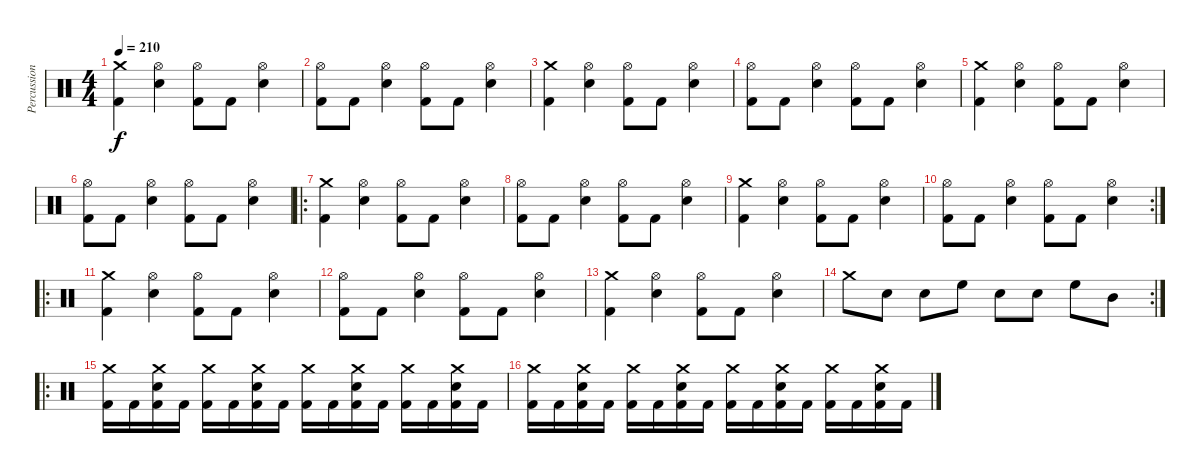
\track ("Percussion" "Percussion") {instrument percussion}
\staff {score}
\articulation defaults
\ts (4 4)
\tempo 210
\clef neutral
\ks c
("Crash medium (hit)" "Kick (hit) 2").4{dy f} ("Hi-Hat (open)" "Electric Snare (hit)").4 ("Hi-Hat (open)" "Kick (hit) 2").8 "Kick (hit) 2".8 ("Hi-Hat (open)" "Electric Snare (hit)").4 |
("Hi-Hat (open)" "Kick (hit) 2").8 "Kick (hit) 2".8 ("Hi-Hat (open)" "Electric Snare (hit)").4 ("Hi-Hat (open)" "Kick (hit) 2").8 "Kick (hit) 2".8 ("Hi-Hat (open)" "Electric Snare (hit)").4 |
("Crash medium (hit)" "Kick (hit) 2").4 ("Hi-Hat (open)" "Electric Snare (hit)").4 ("Hi-Hat (open)" "Kick (hit) 2").8 "Kick (hit) 2".8 ("Hi-Hat (open)" "Electric Snare (hit)").4 |
("Hi-Hat (open)" "Kick (hit) 2").8 "Kick (hit) 2".8 ("Hi-Hat (open)" "Electric Snare (hit)").4 ("Hi-Hat (open)" "Kick (hit) 2").8 "Kick (hit) 2".8 ("Hi-Hat (open)" "Electric Snare (hit)").4 |
("Crash medium (hit)" "Kick (hit) 2").4 ("Hi-Hat (open)" "Electric Snare (hit)").4 ("Hi-Hat (open)" "Kick (hit) 2").8 "Kick (hit) 2".8 ("Hi-Hat (open)" "Electric Snare (hit)").4 |
("Hi-Hat (open)" "Kick (hit) 2").8 "Kick (hit) 2".8 ("Hi-Hat (open)" "Electric Snare (hit)").4 ("Hi-Hat (open)" "Kick (hit) 2").8 "Kick (hit) 2".8 ("Hi-Hat (open)" "Electric Snare (hit)").4 |
\ro
("Crash medium (hit)" "Kick (hit) 2").4 ("Hi-Hat (open)" "Electric Snare (hit)").4 ("Hi-Hat (open)" "Kick (hit) 2").8 "Kick (hit) 2".8 ("Hi-Hat (open)" "Electric Snare (hit)").4 |
("Hi-Hat (open)" "Kick (hit) 2").8 "Kick (hit) 2".8 ("Hi-Hat (open)" "Electric Snare (hit)").4 ("Hi-Hat (open)" "Kick (hit) 2").8 "Kick (hit) 2".8 ("Hi-Hat (open)" "Electric Snare (hit)").4 |
("Crash medium (hit)" "Kick (hit) 2").4 ("Hi-Hat (open)" "Electric Snare (hit)").4 ("Hi-Hat (open)" "Kick (hit) 2").8 "Kick (hit) 2".8 ("Hi-Hat (open)" "Electric Snare (hit)").4 |
\rc 2
("Hi-Hat (open)" "Kick (hit) 2").8 "Kick (hit) 2".8 ("Hi-Hat (open)" "Electric Snare (hit)").4 ("Hi-Hat (open)" "Kick (hit) 2").8 "Kick (hit) 2".8 ("Hi-Hat (open)" "Electric Snare (hit)").4 |
\ro
("Crash medium (hit)" "Kick (hit) 2").4 ("Hi-Hat (open)" "Electric Snare (hit)").4 ("Hi-Hat (open)" "Kick (hit) 2").8 "Kick (hit) 2".8 ("Hi-Hat (open)" "Electric Snare (hit)").4 |
("Hi-Hat (open)" "Kick (hit) 2").8 "Kick (hit) 2".8 ("Hi-Hat (open)" "Electric Snare (hit)").4 ("Hi-Hat (open)" "Kick (hit) 2").8 "Kick (hit) 2".8 ("Hi-Hat (open)" "Electric Snare (hit)").4 |
("Crash medium (hit)" "Kick (hit) 2").4 ("Hi-Hat (open)" "Electric Snare (hit)").4 ("Hi-Hat (open)" "Kick (hit) 2").8 "Kick (hit) 2".8 ("Hi-Hat (open)" "Electric Snare (hit)").4 |
\rc 2 "Crash medium (hit)".8 "Electric Snare (hit)".8 "Electric Snare (hit)".8 "High Floor Tom (hit)".8 "Electric Snare (hit)".8 "Electric Snare (hit)".8 "High Floor Tom (hit)".8 "Mid Tom (hit)".8
|
\ro
("Crash medium (hit)" "Kick (hit) 2").16 "Kick (hit) 2".16 ("Crash medium (hit)" "Electric Snare (hit)" "Kick (hit) 2").16 "Kick (hit) 2".16 ("Crash medium (hit)" "Kick (hit) 2").16 "Kick (hit) 2".16 ("Crash medium (hit)" "Electric Snare (hit)" "Kick (hit) 2").16 "Kick (hit) 2".16 ("Crash medium (hit)" "Kick (hit) 2").16 "Kick (hit) 2".16 ("Crash medium (hit)" "Electric Snare (hit)" "Kick (hit) 2").16 "Kick (hit) 2".16 ("Crash medium (hit)" "Kick (hit) 2").16 "Kick (hit) 2".16 ("Crash medium (hit)" "Electric Snare (hit)" "Kick (hit) 2").16 "Kick (hit) 2".16 |
("Crash medium (hit)" "Kick (hit) 2").16 "Kick (hit) 2".16 ("Crash medium (hit)" "Electric Snare (hit)" "Kick (hit) 2").16 "Kick (hit) 2".16 ("Crash medium (hit)" "Kick (hit) 2").16 "Kick (hit) 2".16 ("Crash medium (hit)" "Electric Snare (hit)" "Kick (hit) 2").16 "Kick (hit) 2".16 ("Crash medium (hit)" "Kick (hit) 2").16 "Kick (hit) 2".16 ("Crash medium (hit)" "Electric Snare (hit)" "Kick (hit) 2").16 "Kick (hit) 2".16 ("Crash medium (hit)" "Kick (hit) 2").16 "Kick (hit) 2".16 ("Crash medium (hit)" "Electric Snare (hit)" "Kick (hit) 2").16 "Kick (hit) 2".16
